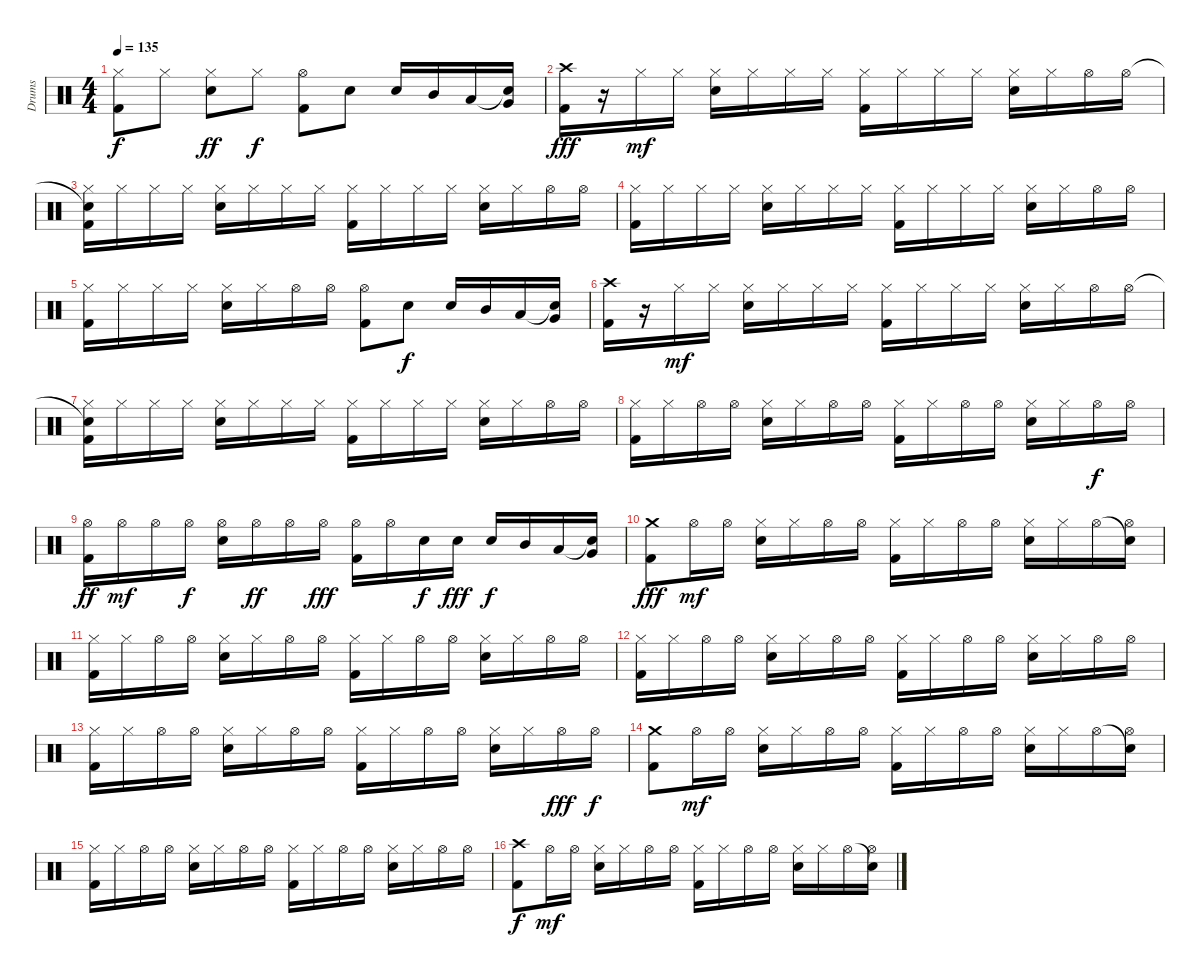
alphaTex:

\track ("Drums" "Drums") {instrument percussion}
\staff {score}
\articulation defaults
\ts (4 4)
\tempo 135
\clef neutral
\ks c
("Hi-Hat (closed)" "Kick (hit) 2").8{dy f} "Hi-Hat (closed)".8 ("Hi-Hat (closed)" "Snare (hit) 2").8{dy ff} "Hi-Hat (closed)".8{dy f} ("Hi-Hat (open)" "Kick (hit) 2").8 "Snare (hit) 2".8 "Snare (hit) 2".16 "Mid Tom (hit)".16 "Low Tom (hit)".16 ("Snare (hit)"{t} "Very Low Tom (hit)").16 |
("Crash high (hit)" "Kick (hit) 2").16{dy fff} r.16 "Hi-Hat (closed)".16{dy mf} "Hi-Hat (closed)".16 ("Hi-Hat (closed)" "Snare (hit) 2").16 "Hi-Hat (closed)".16 "Hi-Hat (closed)".16 "Hi-Hat (closed)".16 ("Hi-Hat (closed)" "Kick (hit) 2").16 "Hi-Hat (closed)".16 "Hi-Hat (closed)".16 "Hi-Hat (closed)".16 ("Hi-Hat (closed)" "Snare (hit) 2").16 "Hi-Hat (closed)".16 "Hi-Hat (open)".16 "Hi-Hat (open)".16 |
("Snare (hit)"{t} "Hi-Hat (closed)" "Kick (hit) 2").16 "Hi-Hat (closed)".16 "Hi-Hat (closed)".16 "Hi-Hat (closed)".16 ("Hi-Hat (closed)" "Snare (hit) 2").16 "Hi-Hat (closed)".16 "Hi-Hat (closed)".16 "Hi-Hat (closed)".16 ("Hi-Hat (closed)" "Kick (hit) 2").16 "Hi-Hat (closed)".16 "Hi-Hat (closed)".16 "Hi-Hat (closed)".16 ("Hi-Hat (closed)" "Snare (hit) 2").16 "Hi-Hat (closed)".16 "Hi-Hat (open)".16 "Hi-Hat (open)".16 |
("Hi-Hat (closed)" "Kick (hit) 2").16 "Hi-Hat (closed)".16 "Hi-Hat (closed)".16 "Hi-Hat (closed)".16 ("Hi-Hat (closed)" "Snare (hit) 2").16 "Hi-Hat (closed)".16 "Hi-Hat (closed)".16 "Hi-Hat (closed)".16 ("Hi-Hat (closed)" "Kick (hit) 2").16 "Hi-Hat (closed)".16 "Hi-Hat (closed)".16 "Hi-Hat (closed)".16 ("Hi-Hat (closed)" "Snare (hit) 2").16 "Hi-Hat (closed)".16 "Hi-Hat (open)".16 "Hi-Hat (open)".16 |
("Hi-Hat (closed)" "Kick (hit) 2").16 "Hi-Hat (closed)".16 "Hi-Hat (closed)".16 "Hi-Hat (closed)".16 ("Hi-Hat (closed)" "Snare (hit) 2").16 "Hi-Hat (closed)".16 "Hi-Hat (open)".16 "Hi-Hat (open)".16 ("Hi-Hat (open)" "Kick (hit) 2").8 "Snare (hit) 2".8{dy f} "Snare (hit) 2".16 "Mid Tom (hit)".16 "Low Tom (hit)".16 ("Snare (hit)"{t} "Very Low Tom (hit)").16 |
("Crash high (hit)" "Kick (hit) 2").16 r.16 "Hi-Hat (closed)".16{dy mf} "Hi-Hat (closed)".16 ("Hi-Hat (closed)" "Snare (hit) 2").16 "Hi-Hat (closed)".16 "Hi-Hat (closed)".16 "Hi-Hat (closed)".16 ("Hi-Hat (closed)" "Kick (hit) 2").16 "Hi-Hat (closed)".16 "Hi-Hat (closed)".16 "Hi-Hat (closed)".16 ("Hi-Hat (closed)" "Snare (hit) 2").16 "Hi-Hat (closed)".16 "Hi-Hat (open)".16 "Hi-Hat (open)".16 |
("Snare (hit)"{t} "Hi-Hat (closed)" "Kick (hit) 2").16 "Hi-Hat (closed)".16 "Hi-Hat (closed)".16 "Hi-Hat (closed)".16 ("Hi-Hat (closed)" "Snare (hit) 2").16 "Hi-Hat (closed)".16 "Hi-Hat (closed)".16 "Hi-Hat (closed)".16 ("Hi-Hat (closed)" "Kick (hit) 2").16 "Hi-Hat (closed)".16 "Hi-Hat (closed)".16 "Hi-Hat (closed)".16 ("Hi-Hat (closed)" "Snare (hit) 2").16 "Hi-Hat (closed)".16 "Hi-Hat (open)".16 "Hi-Hat (open)".16 |
("Hi-Hat (closed)" "Kick (hit) 2").16 "Hi-Hat (closed)".16 "Hi-Hat (open)".16 "Hi-Hat (open)".16 ("Hi-Hat (closed)" "Snare (hit) 2").16 "Hi-Hat (closed)".16 "Hi-Hat (open)".16 "Hi-Hat (open)".16 ("Hi-Hat (closed)" "Kick (hit) 2").16 "Hi-Hat (closed)".16 "Hi-Hat (open)".16 "Hi-Hat (open)".16 ("Hi-Hat (closed)" "Snare (hit) 2").16 "Hi-Hat (closed)".16 "Hi-Hat (open)".16{dy f} "Hi-Hat (open)".16 |
("Hi-Hat (open)" "Kick (hit) 2").16{dy ff} "Hi-Hat (open)".16{dy mf} "Hi-Hat (open)".16 "Hi-Hat (open)".16{dy f} ("Hi-Hat (open)" "Snare (hit) 2").16 "Hi-Hat (open)".16{dy ff} "Hi-Hat (open)".16 "Hi-Hat (open)".16{dy fff} ("Hi-Hat (open)" "Kick (hit) 2").16 "Hi-Hat (open)".16 "Snare (hit) 2".16{dy f} "Snare (hit) 2".16{dy fff} "Snare (hit) 2".16{dy f} "Mid Tom (hit)".16 "Low Tom (hit)".16 ("Snare (hit)"{t} "Very Low Tom (hit)").16 |
("Crash medium (hit)" "Kick (hit) 2").8{dy fff} "Hi-Hat (open)".16{dy mf} "Hi-Hat (open)".16 ("Hi-Hat (closed)" "Snare (hit) 2").16 "Hi-Hat (closed)".16 "Hi-Hat (open)".16 "Hi-Hat (open)".16 ("Hi-Hat (closed)" "Kick (hit) 2").16 "Hi-Hat (closed)".16 "Hi-Hat (open)".16 "Hi-Hat (open)".16 ("Hi-Hat (closed)" "Snare (hit) 2").16 "Hi-Hat (closed)".16 "Hi-Hat (open)".16 ("Snare (hit)"{t} "Hi-Hat (open)").16 |
("Hi-Hat (closed)" "Kick (hit) 2").16 "Hi-Hat (closed)".16 "Hi-Hat (open)".16 "Hi-Hat (open)".16 ("Hi-Hat (closed)" "Snare (hit) 2").16 "Hi-Hat (closed)".16 "Hi-Hat (open)".16 "Hi-Hat (open)".16 ("Hi-Hat (closed)" "Kick (hit) 2").16 "Hi-Hat (closed)".16 "Hi-Hat (open)".16 "Hi-Hat (open)".16 ("Hi-Hat (closed)" "Snare (hit) 2").16 "Hi-Hat (closed)".16 "Hi-Hat (open)".16 "Hi-Hat (open)".16 |
("Hi-Hat (closed)" "Kick (hit) 2").16 "Hi-Hat (closed)".16 "Hi-Hat (open)".16 "Hi-Hat (open)".16 ("Hi-Hat (closed)" "Snare (hit) 2").16 "Hi-Hat (closed)".16 "Hi-Hat (open)".16 "Hi-Hat (open)".16 ("Hi-Hat (closed)" "Kick (hit) 2").16 "Hi-Hat (closed)".16 "Hi-Hat (open)".16 "Hi-Hat (open)".16 ("Hi-Hat (closed)" "Snare (hit) 2").16 "Hi-Hat (closed)".16 "Hi-Hat (open)".16 "Hi-Hat (open)".16 |
("Hi-Hat (closed)" "Kick (hit) 2").16 "Hi-Hat (closed)".16 "Hi-Hat (open)".16 "Hi-Hat (open)".16 ("Hi-Hat (closed)" "Snare (hit) 2").16 "Hi-Hat (closed)".16 "Hi-Hat (open)".16 "Hi-Hat (open)".16 ("Hi-Hat (closed)" "Kick (hit) 2").16 "Hi-Hat (closed)".16 "Hi-Hat (open)".16 "Hi-Hat (open)".16 ("Hi-Hat (closed)" "Snare (hit) 2").16 "Hi-Hat (closed)".16 "Hi-Hat (open)".16{dy fff} "Hi-Hat (open)".16{dy f} |
("Crash medium (hit)" "Kick (hit) 2").8 "Hi-Hat (open)".16{dy mf} "Hi-Hat (open)".16 ("Hi-Hat (closed)" "Snare (hit) 2").16 "Hi-Hat (closed)".16 "Hi-Hat (open)".16 "Hi-Hat (open)".16 ("Hi-Hat (closed)" "Kick (hit) 2").16 "Hi-Hat (closed)".16 "Hi-Hat (open)".16 "Hi-Hat (open)".16 ("Hi-Hat (closed)" "Snare (hit) 2").16 "Hi-Hat (closed)".16 "Hi-Hat (open)".16 ("Snare (hit)"{t} "Hi-Hat (open)").16 |
("Hi-Hat (closed)" "Kick (hit) 2").16 "Hi-Hat (closed)".16 "Hi-Hat (open)".16 "Hi-Hat (open)".16 ("Hi-Hat (closed)" "Snare (hit) 2").16 "Hi-Hat (closed)".16 "Hi-Hat (open)".16 "Hi-Hat (open)".16 ("Hi-Hat (closed)" "Kick (hit) 2").16 "Hi-Hat (closed)".16 "Hi-Hat (open)".16 "Hi-Hat (open)".16 ("Hi-Hat (closed)" "Snare (hit) 2").16 "Hi-Hat (closed)".16 "Hi-Hat (open)".16 "Hi-Hat (open)".16 |
("Crash high (hit)" "Kick (hit) 2").8{dy f} "Hi-Hat (open)".16{dy mf} "Hi-Hat (open)".16 ("Hi-Hat (closed)" "Snare (hit) 2").16 "Hi-Hat (closed)".16 "Hi-Hat (open)".16 "Hi-Hat (open)".16 ("Hi-Hat (closed)" "Kick (hit) 2").16 "Hi-Hat (closed)".16 "Hi-Hat (open)".16 "Hi-Hat (open)".16 ("Hi-Hat (closed)" "Snare (hit) 2").16 "Hi-Hat (closed)".16 "Hi-Hat (open)".16 ("Snare (hit)"{t} "Hi-Hat (open)").16
